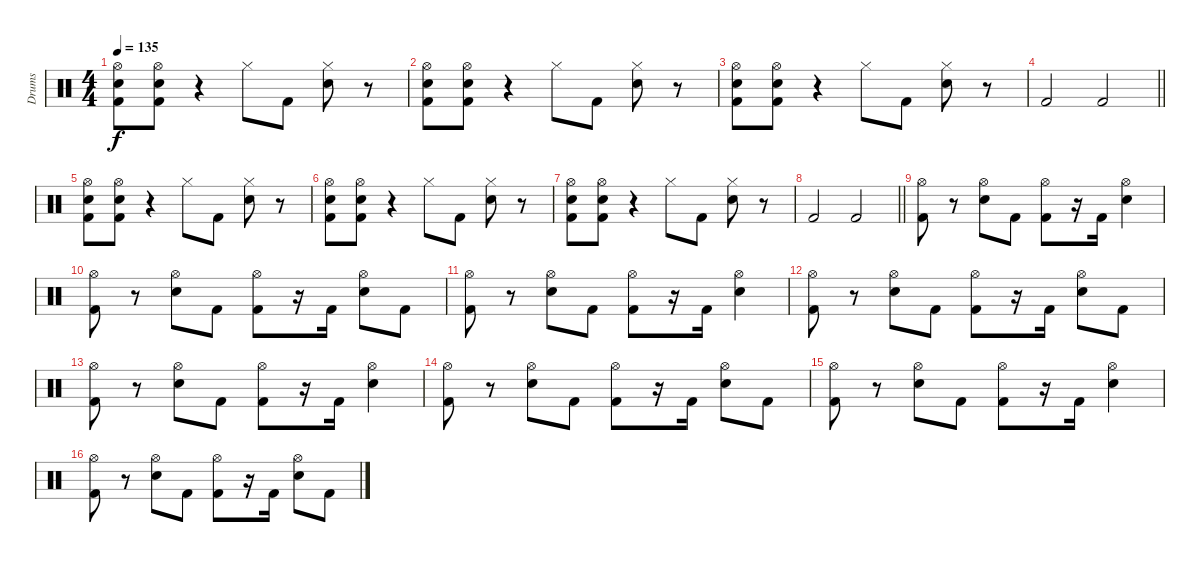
\track ("Drums" "Drums") {instrument percussion}
\staff {score}
\articulation defaults
\ts (4 4)
\tempo 135
\clef neutral
\ks c
("Hi-Hat (open)" "Snare (hit) 2" "Kick (hit) 2").8{dy f} ("Hi-Hat (open)" "Snare (hit) 2" "Kick (hit) 2").8 r.4 "Hi-Hat (closed)".8 "Kick (hit) 2".8 ("Hi-Hat (closed)" "Snare (hit) 2").8 r.8 |
("Hi-Hat (open)" "Snare (hit) 2" "Kick (hit) 2").8 ("Hi-Hat (open)" "Snare (hit) 2" "Kick (hit) 2").8 r.4 "Hi-Hat (closed)".8 "Kick (hit) 2".8 ("Hi-Hat (closed)" "Snare (hit) 2").8 r.8 |
("Hi-Hat (open)" "Snare (hit) 2" "Kick (hit) 2").8 ("Hi-Hat (open)" "Snare (hit) 2" "Kick (hit) 2").8 r.4 "Hi-Hat (closed)".8 "Kick (hit) 2".8 ("Hi-Hat (closed)" "Snare (hit) 2").8 r.8 |
\barLineRight lightlight "Kick (hit) 2".2 "Kick (hit) 2".2
|
("Hi-Hat (open)" "Snare (hit) 2" "Kick (hit) 2").8 ("Hi-Hat (open)" "Snare (hit) 2" "Kick (hit) 2").8 r.4 "Hi-Hat (closed)".8 "Kick (hit) 2".8 ("Hi-Hat (closed)" "Snare (hit) 2").8 r.8 |
("Hi-Hat (open)" "Snare (hit) 2" "Kick (hit) 2").8 ("Hi-Hat (open)" "Snare (hit) 2" "Kick (hit) 2").8 r.4 "Hi-Hat (closed)".8 "Kick (hit) 2".8 ("Hi-Hat (closed)" "Snare (hit) 2").8 r.8 |
("Hi-Hat (open)" "Snare (hit) 2" "Kick (hit) 2").8 ("Hi-Hat (open)" "Snare (hit) 2" "Kick (hit) 2").8 r.4 "Hi-Hat (closed)".8 "Kick (hit) 2".8 ("Hi-Hat (closed)" "Snare (hit) 2").8 r.8 |
\barLineRight lightlight "Kick (hit) 2".2 "Kick (hit) 2".2
|
("Hi-Hat (open)" "Kick (hit) 2").8 r.8 ("Hi-Hat (open)" "Snare (hit) 2").8 "Kick (hit) 2".8 ("Hi-Hat (open)" "Kick (hit) 2").8 r.16 "Kick (hit) 2".16 ("Hi-Hat (open)" "Snare (hit) 2").4 |
("Hi-Hat (open)" "Kick (hit) 2").8 r.8 ("Hi-Hat (open)" "Snare (hit) 2").8 "Kick (hit) 2".8 ("Hi-Hat (open)" "Kick (hit) 2").8 r.16 "Kick (hit) 2".16 ("Hi-Hat (open)" "Snare (hit) 2").8 "Kick (hit) 2".8 |
("Hi-Hat (open)" "Kick (hit) 2").8 r.8 ("Hi-Hat (open)" "Snare (hit) 2").8 "Kick (hit) 2".8 ("Hi-Hat (open)" "Kick (hit) 2").8 r.16 "Kick (hit) 2".16 ("Hi-Hat (open)" "Snare (hit) 2").4 |
("Hi-Hat (open)" "Kick (hit) 2").8 r.8 ("Hi-Hat (open)" "Snare (hit) 2").8 "Kick (hit) 2".8 ("Hi-Hat (open)" "Kick (hit) 2").8 r.16 "Kick (hit) 2".16 ("Hi-Hat (open)" "Snare (hit) 2").8 "Kick (hit) 2".8 |
("Hi-Hat (open)" "Kick (hit) 2").8 r.8 ("Hi-Hat (open)" "Snare (hit) 2").8 "Kick (hit) 2".8 ("Hi-Hat (open)" "Kick (hit) 2").8 r.16 "Kick (hit) 2".16 ("Hi-Hat (open)" "Snare (hit) 2").4 |
("Hi-Hat (open)" "Kick (hit) 2").8 r.8 ("Hi-Hat (open)" "Snare (hit) 2").8 "Kick (hit) 2".8 ("Hi-Hat (open)" "Kick (hit) 2").8 r.16 "Kick (hit) 2".16 ("Hi-Hat (open)" "Snare (hit) 2").8 "Kick (hit) 2".8 |
("Hi-Hat (open)" "Kick (hit) 2").8 r.8 ("Hi-Hat (open)" "Snare (hit) 2").8 "Kick (hit) 2".8 ("Hi-Hat (open)" "Kick (hit) 2").8 r.16 "Kick (hit) 2".16 ("Hi-Hat (open)" "Snare (hit) 2").4 |
("Hi-Hat (open)" "Kick (hit) 2").8 r.8 ("Hi-Hat (open)" "Snare (hit) 2").8 "Kick (hit) 2".8 ("Hi-Hat (open)" "Kick (hit) 2").8 r.16 "Kick (hit) 2".16 ("Hi-Hat (open)" "Snare (hit) 2").8 "Kick (hit) 2".8
